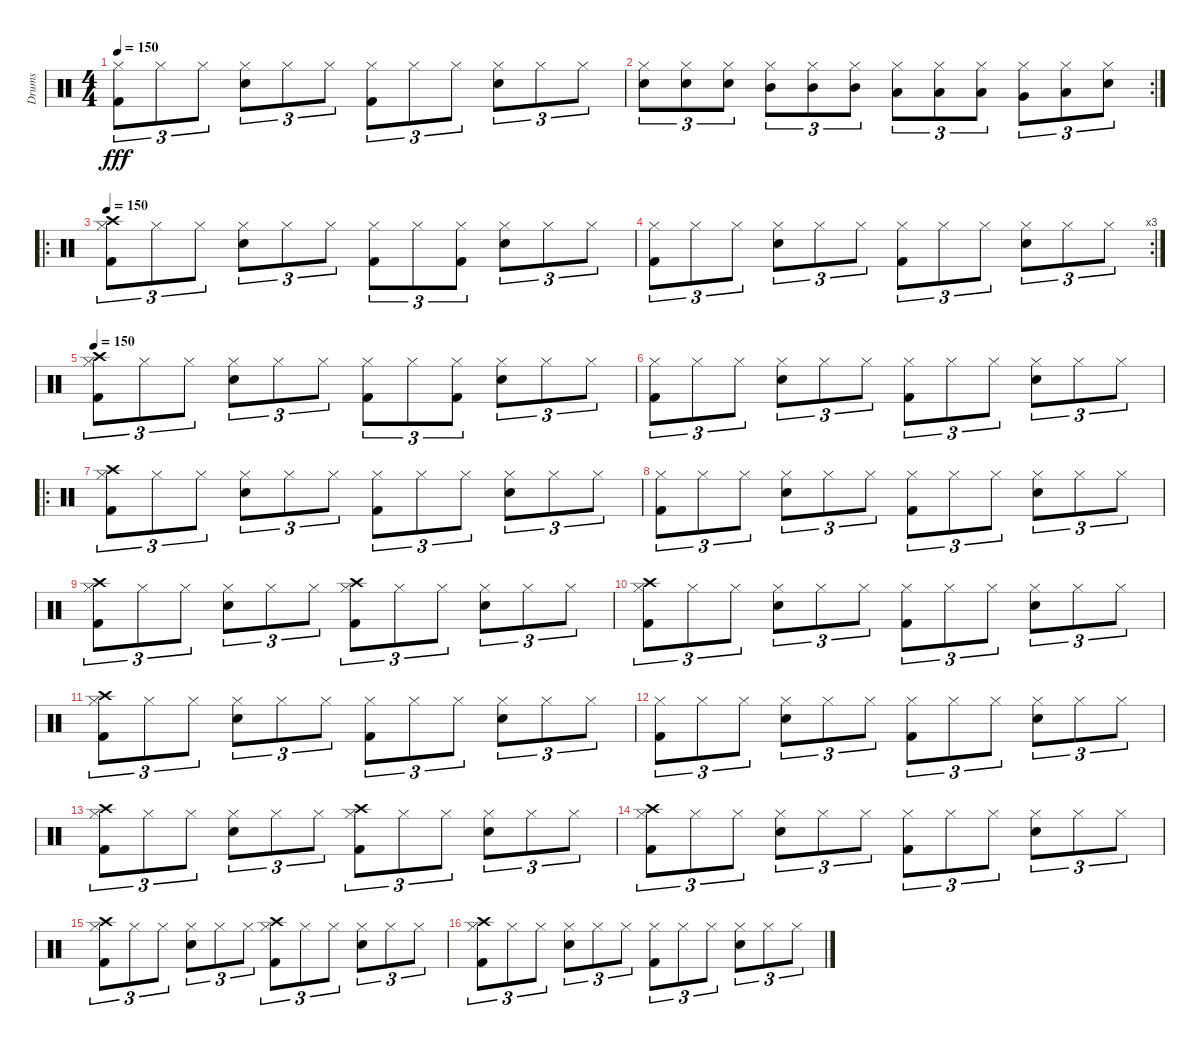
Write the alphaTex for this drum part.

\track ("Drums" "Drums") {instrument percussion}
\staff {score}
\articulation defaults
\ts (4 4)
\tempo 150
\clef neutral
\ks c
("Hi-Hat (closed)" "Kick (hit) 2").8{tu (3 2) dy fff} "Hi-Hat (closed)".8{tu (3 2)} "Hi-Hat (closed)".8{tu (3 2)} ("Hi-Hat (closed)" "Snare (hit) 2").8{tu (3 2)} "Hi-Hat (closed)".8{tu (3 2)} "Hi-Hat (closed)".8{tu (3 2)} ("Hi-Hat (closed)" "Kick (hit) 2").8{tu (3 2)} "Hi-Hat (closed)".8{tu (3 2)} "Hi-Hat (closed)".8{tu (3 2)} ("Hi-Hat (closed)" "Snare (hit) 2").8{tu (3 2)} "Hi-Hat (closed)".8{tu (3 2)} "Hi-Hat (closed)".8{tu (3 2)} |
\rc 2
("Snare (hit) 2" "Hi-Hat (closed)").8{tu (3 2)} ("Snare (hit) 2" "Hi-Hat (closed)").8{tu (3 2)} ("Snare (hit) 2" "Hi-Hat (closed)").8{tu (3 2)} ("Mid Tom (hit)" "Hi-Hat (closed)").8{tu (3 2)} ("Mid Tom (hit)" "Hi-Hat (closed)").8{tu (3 2)} ("Mid Tom (hit)" "Hi-Hat (closed)").8{tu (3 2)} ("Low Tom (hit)" "Hi-Hat (closed)").8{tu (3 2)} ("Low Tom (hit)" "Hi-Hat (closed)").8{tu (3 2)} ("Low Tom (hit)" "Hi-Hat (closed)").8{tu (3 2)} ("Very Low Tom (hit)" "Hi-Hat (closed)").8{tu (3 2)} ("Low Floor Tom (hit)" "Hi-Hat (closed)").8{tu (3 2)} ("Electric Snare (hit)" "Hi-Hat (closed)").8{tu (3 2)} |
\ro
\tempo 150
("Hi-Hat (closed)" "Kick (hit) 2" "Crash high (hit)").8{tu (3 2)} "Hi-Hat (closed)".8{tu (3 2)} "Hi-Hat (closed)".8{tu (3 2)} ("Hi-Hat (closed)" "Snare (hit) 2").8{tu (3 2)} "Hi-Hat (closed)".8{tu (3 2)} "Hi-Hat (closed)".8{tu (3 2)} ("Hi-Hat (closed)" "Kick (hit) 2").8{tu (3 2)} "Hi-Hat (closed)".8{tu (3 2)} ("Hi-Hat (closed)" "Kick (hit) 2").8{tu (3 2)} ("Hi-Hat (closed)" "Snare (hit) 2").8{tu (3 2)} "Hi-Hat (closed)".8{tu (3 2)} "Hi-Hat (closed)".8{tu (3 2)} |
\rc 3
("Hi-Hat (closed)" "Kick (hit) 2").8{tu (3 2)} "Hi-Hat (closed)".8{tu (3 2)} "Hi-Hat (closed)".8{tu (3 2)} ("Hi-Hat (closed)" "Snare (hit) 2").8{tu (3 2)} "Hi-Hat (closed)".8{tu (3 2)} "Hi-Hat (closed)".8{tu (3 2)} ("Hi-Hat (closed)" "Kick (hit) 2").8{tu (3 2)} "Hi-Hat (closed)".8{tu (3 2)} "Hi-Hat (closed)".8{tu (3 2)} ("Hi-Hat (closed)" "Snare (hit) 2").8{tu (3 2)} "Hi-Hat (closed)".8{tu (3 2)} "Hi-Hat (closed)".8{tu (3 2)} |
\tempo 150
("Hi-Hat (closed)" "Kick (hit) 2" "Crash high (hit)").8{tu (3 2)} "Hi-Hat (closed)".8{tu (3 2)} "Hi-Hat (closed)".8{tu (3 2)} ("Hi-Hat (closed)" "Snare (hit) 2").8{tu (3 2)} "Hi-Hat (closed)".8{tu (3 2)} "Hi-Hat (closed)".8{tu (3 2)} ("Hi-Hat (closed)" "Kick (hit) 2").8{tu (3 2)} "Hi-Hat (closed)".8{tu (3 2)} ("Hi-Hat (closed)" "Kick (hit) 2").8{tu (3 2)} ("Hi-Hat (closed)" "Snare (hit) 2").8{tu (3 2)} "Hi-Hat (closed)".8{tu (3 2)} "Hi-Hat (closed)".8{tu (3 2)} |
("Hi-Hat (closed)" "Kick (hit) 2").8{tu (3 2)} "Hi-Hat (closed)".8{tu (3 2)} "Hi-Hat (closed)".8{tu (3 2)} ("Hi-Hat (closed)" "Snare (hit) 2").8{tu (3 2)} "Hi-Hat (closed)".8{tu (3 2)} "Hi-Hat (closed)".8{tu (3 2)} ("Hi-Hat (closed)" "Kick (hit) 2").8{tu (3 2)} "Hi-Hat (closed)".8{tu (3 2)} "Hi-Hat (closed)".8{tu (3 2)} ("Hi-Hat (closed)" "Snare (hit) 2").8{tu (3 2)} "Hi-Hat (closed)".8{tu (3 2)} "Hi-Hat (closed)".8{tu (3 2)} |
\ro
("Hi-Hat (closed)" "Kick (hit) 2" "Crash high (hit)").8{tu (3 2)} "Hi-Hat (closed)".8{tu (3 2)} "Hi-Hat (closed)".8{tu (3 2)} ("Hi-Hat (closed)" "Snare (hit) 2").8{tu (3 2)} "Hi-Hat (closed)".8{tu (3 2)} "Hi-Hat (closed)".8{tu (3 2)} ("Hi-Hat (closed)" "Kick (hit) 2").8{tu (3 2)} "Hi-Hat (closed)".8{tu (3 2)} "Hi-Hat (closed)".8{tu (3 2)} ("Hi-Hat (closed)" "Snare (hit) 2").8{tu (3 2)} "Hi-Hat (closed)".8{tu (3 2)} "Hi-Hat (closed)".8{tu (3 2)} |
("Hi-Hat (closed)" "Kick (hit) 2").8{tu (3 2)} "Hi-Hat (closed)".8{tu (3 2)} "Hi-Hat (closed)".8{tu (3 2)} ("Hi-Hat (closed)" "Snare (hit) 2").8{tu (3 2)} "Hi-Hat (closed)".8{tu (3 2)} "Hi-Hat (closed)".8{tu (3 2)} ("Hi-Hat (closed)" "Kick (hit) 2").8{tu (3 2)} "Hi-Hat (closed)".8{tu (3 2)} "Hi-Hat (closed)".8{tu (3 2)} ("Hi-Hat (closed)" "Snare (hit) 2").8{tu (3 2)} "Hi-Hat (closed)".8{tu (3 2)} "Hi-Hat (closed)".8{tu (3 2)} |
("Hi-Hat (closed)" "Kick (hit) 2" "Crash high (hit)").8{tu (3 2)} "Hi-Hat (closed)".8{tu (3 2)} "Hi-Hat (closed)".8{tu (3 2)} ("Hi-Hat (closed)" "Snare (hit) 2").8{tu (3 2)} "Hi-Hat (closed)".8{tu (3 2)} "Hi-Hat (closed)".8{tu (3 2)} ("Hi-Hat (closed)" "Kick (hit) 2" "Crash high (hit)").8{tu (3 2)} "Hi-Hat (closed)".8{tu (3 2)} "Hi-Hat (closed)".8{tu (3 2)} ("Hi-Hat (closed)" "Snare (hit) 2").8{tu (3 2)} "Hi-Hat (closed)".8{tu (3 2)} "Hi-Hat (closed)".8{tu (3 2)} |
("Hi-Hat (closed)" "Kick (hit) 2" "Crash high (hit)").8{tu (3 2)} "Hi-Hat (closed)".8{tu (3 2)} "Hi-Hat (closed)".8{tu (3 2)} ("Hi-Hat (closed)" "Snare (hit) 2").8{tu (3 2)} "Hi-Hat (closed)".8{tu (3 2)} "Hi-Hat (closed)".8{tu (3 2)} ("Hi-Hat (closed)" "Kick (hit) 2").8{tu (3 2)} "Hi-Hat (closed)".8{tu (3 2)} "Hi-Hat (closed)".8{tu (3 2)} ("Hi-Hat (closed)" "Snare (hit) 2").8{tu (3 2)} "Hi-Hat (closed)".8{tu (3 2)} "Hi-Hat (closed)".8{tu (3 2)} |
("Hi-Hat (closed)" "Kick (hit) 2" "Crash high (hit)").8{tu (3 2)} "Hi-Hat (closed)".8{tu (3 2)} "Hi-Hat (closed)".8{tu (3 2)} ("Hi-Hat (closed)" "Snare (hit) 2").8{tu (3 2)} "Hi-Hat (closed)".8{tu (3 2)} "Hi-Hat (closed)".8{tu (3 2)} ("Hi-Hat (closed)" "Kick (hit) 2").8{tu (3 2)} "Hi-Hat (closed)".8{tu (3 2)} "Hi-Hat (closed)".8{tu (3 2)} ("Hi-Hat (closed)" "Snare (hit) 2").8{tu (3 2)} "Hi-Hat (closed)".8{tu (3 2)} "Hi-Hat (closed)".8{tu (3 2)} |
("Hi-Hat (closed)" "Kick (hit) 2").8{tu (3 2)} "Hi-Hat (closed)".8{tu (3 2)} "Hi-Hat (closed)".8{tu (3 2)} ("Hi-Hat (closed)" "Snare (hit) 2").8{tu (3 2)} "Hi-Hat (closed)".8{tu (3 2)} "Hi-Hat (closed)".8{tu (3 2)} ("Hi-Hat (closed)" "Kick (hit) 2").8{tu (3 2)} "Hi-Hat (closed)".8{tu (3 2)} "Hi-Hat (closed)".8{tu (3 2)} ("Hi-Hat (closed)" "Snare (hit) 2").8{tu (3 2)} "Hi-Hat (closed)".8{tu (3 2)} "Hi-Hat (closed)".8{tu (3 2)} |
("Hi-Hat (closed)" "Kick (hit) 2" "Crash high (hit)").8{tu (3 2)} "Hi-Hat (closed)".8{tu (3 2)} "Hi-Hat (closed)".8{tu (3 2)} ("Hi-Hat (closed)" "Snare (hit) 2").8{tu (3 2)} "Hi-Hat (closed)".8{tu (3 2)} "Hi-Hat (closed)".8{tu (3 2)} ("Hi-Hat (closed)" "Kick (hit) 2" "Crash high (hit)").8{tu (3 2)} "Hi-Hat (closed)".8{tu (3 2)} "Hi-Hat (closed)".8{tu (3 2)} ("Hi-Hat (closed)" "Snare (hit) 2").8{tu (3 2)} "Hi-Hat (closed)".8{tu (3 2)} "Hi-Hat (closed)".8{tu (3 2)} |
("Hi-Hat (closed)" "Kick (hit) 2" "Crash high (hit)").8{tu (3 2)} "Hi-Hat (closed)".8{tu (3 2)} "Hi-Hat (closed)".8{tu (3 2)} ("Hi-Hat (closed)" "Snare (hit) 2").8{tu (3 2)} "Hi-Hat (closed)".8{tu (3 2)} "Hi-Hat (closed)".8{tu (3 2)} ("Hi-Hat (closed)" "Kick (hit) 2").8{tu (3 2)} "Hi-Hat (closed)".8{tu (3 2)} "Hi-Hat (closed)".8{tu (3 2)} ("Hi-Hat (closed)" "Snare (hit) 2").8{tu (3 2)} "Hi-Hat (closed)".8{tu (3 2)} "Hi-Hat (closed)".8{tu (3 2)} |
("Hi-Hat (closed)" "Kick (hit) 2" "Crash high (hit)").8{tu (3 2)} "Hi-Hat (closed)".8{tu (3 2)} "Hi-Hat (closed)".8{tu (3 2)} ("Hi-Hat (closed)" "Snare (hit) 2").8{tu (3 2)} "Hi-Hat (closed)".8{tu (3 2)} "Hi-Hat (closed)".8{tu (3 2)} ("Hi-Hat (closed)" "Kick (hit) 2" "Crash high (hit)").8{tu (3 2)} "Hi-Hat (closed)".8{tu (3 2)} "Hi-Hat (closed)".8{tu (3 2)} ("Hi-Hat (closed)" "Snare (hit) 2").8{tu (3 2)} "Hi-Hat (closed)".8{tu (3 2)} "Hi-Hat (closed)".8{tu (3 2)} |
("Hi-Hat (closed)" "Kick (hit) 2" "Crash high (hit)").8{tu (3 2)} "Hi-Hat (closed)".8{tu (3 2)} "Hi-Hat (closed)".8{tu (3 2)} ("Hi-Hat (closed)" "Snare (hit) 2").8{tu (3 2)} "Hi-Hat (closed)".8{tu (3 2)} "Hi-Hat (closed)".8{tu (3 2)} ("Hi-Hat (closed)" "Kick (hit) 2").8{tu (3 2)} "Hi-Hat (closed)".8{tu (3 2)} "Hi-Hat (closed)".8{tu (3 2)} ("Hi-Hat (closed)" "Snare (hit) 2").8{tu (3 2)} "Hi-Hat (closed)".8{tu (3 2)} "Hi-Hat (closed)".8{tu (3 2)}
